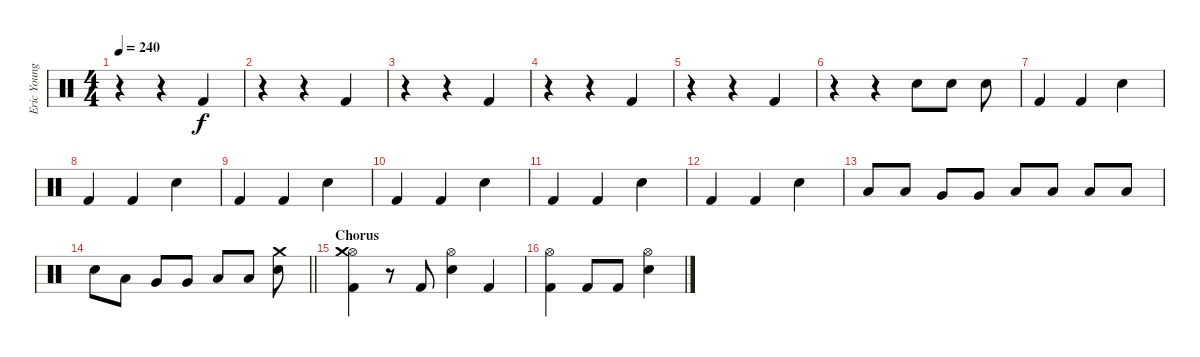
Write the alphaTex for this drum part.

\track ("Eric Young (Drums)" "Eric Young") {instrument percussion}
\staff {score}
\articulation defaults
\ts (4 4)
\tempo 240
\clef neutral
\ks c
r.4{dy f} r.4 "Kick (hit) 2".4 |
r.4 r.4 "Kick (hit) 2".4 |
r.4 r.4 "Kick (hit) 2".4 |
r.4 r.4 "Kick (hit) 2".4 |
r.4 r.4 "Kick (hit) 2".4 |
r.4 r.4 "Snare (hit) 2".8 "Snare (hit) 2".8 "Snare (hit) 2".8 |
"Kick (hit) 2".4 "Kick (hit) 2".4 "Snare (hit) 2".4 |
"Kick (hit) 2".4 "Kick (hit) 2".4 "Snare (hit) 2".4 |
"Kick (hit) 2".4 "Kick (hit) 2".4 "Snare (hit) 2".4 |
"Kick (hit) 2".4 "Kick (hit) 2".4 "Snare (hit) 2".4 |
"Kick (hit) 2".4 "Kick (hit) 2".4 "Snare (hit) 2".4 |
"Kick (hit) 2".4 "Kick (hit) 2".4 "Snare (hit) 2".4 |
"Low Tom (hit)".8 "Low Tom (hit)".8 "Very Low Tom (hit)".8 "Very Low Tom (hit)".8 "Low Floor Tom (hit)".8 "Low Floor Tom (hit)".8 "Low Floor Tom (hit)".8 "Low Floor Tom (hit)".8 |
\barLineRight lightlight "Snare (hit) 2".8 "Low Tom (hit)".8 "Very Low Tom (hit)".8 "Very Low Tom (hit)".8 "Low Floor Tom (hit)".8 "Low Floor Tom (hit)".8
("Snare (hit) 2" "Crash medium (hit)").8 |
\section ("" "Chorus")
("Hi-Hat (open)" "Kick (hit) 2" "Crash medium (hit)").4 r.8 "Kick (hit) 2".8 ("Hi-Hat (open)" "Snare (hit) 2").4 "Kick (hit) 2".4 |
("Hi-Hat (open)" "Kick (hit) 2").4 "Kick (hit) 2".8 "Kick (hit) 2".8 ("Hi-Hat (open)" "Snare (hit) 2").4
